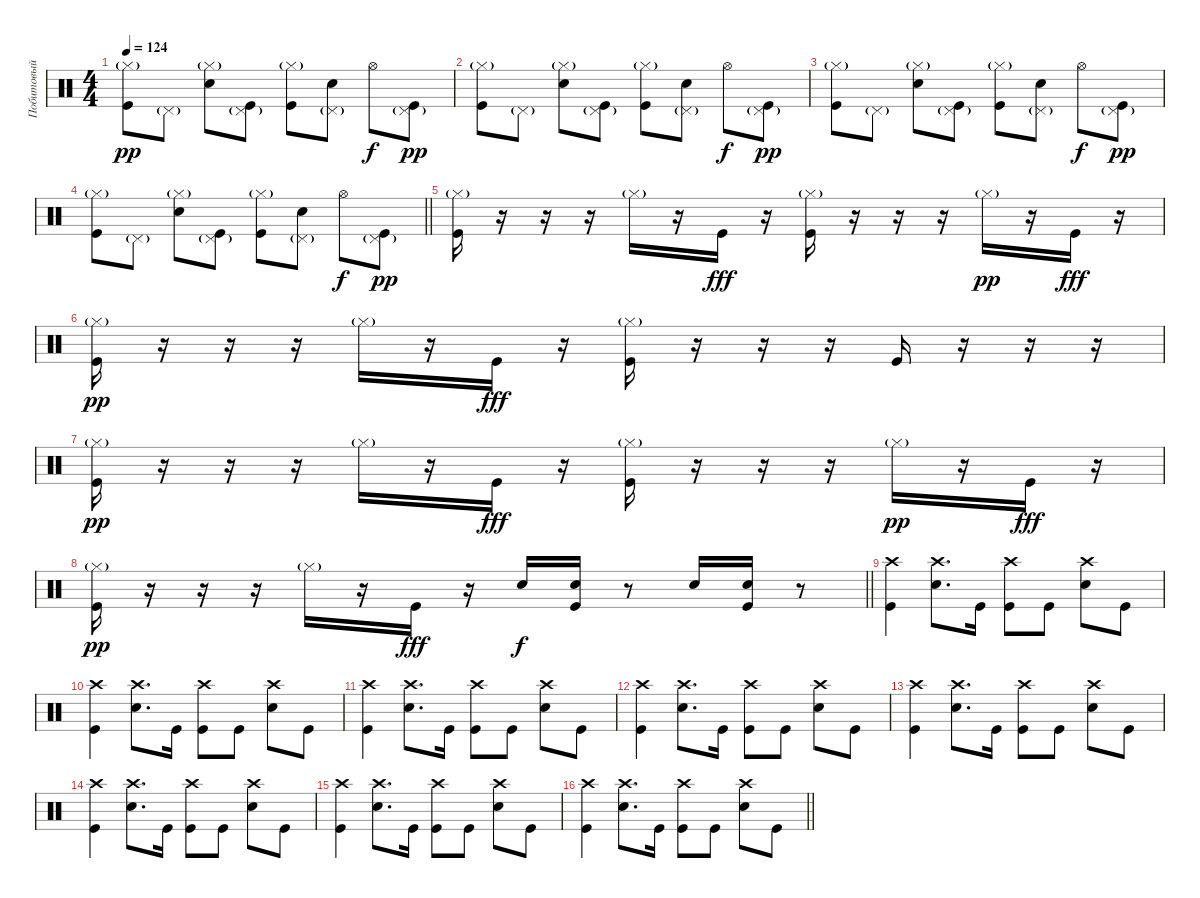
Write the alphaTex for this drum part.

\track ("Побитовый" "Побитовый") {instrument percussion}
\staff {score}
\articulation defaults
\ts (4 4)
\tempo 124
\clef neutral
\ks c
("Hi-Hat (closed)"{g} "Kick (hit)").8{dy pp} "Pedal Hi-Hat (hit)"{g}.8 ("Hi-Hat (closed)"{g} "Snare (hit) 2").8 ("Pedal Hi-Hat (hit)"{g} "Kick (hit)").8 ("Hi-Hat (closed)"{g} "Kick (hit)").8 ("Pedal Hi-Hat (hit)"{g} "Snare (hit) 2").8 "Hi-Hat (open)".8{dy f} ("Pedal Hi-Hat (hit)"{g} "Kick (hit)").8{dy pp} |
("Hi-Hat (closed)"{g} "Kick (hit)").8 "Pedal Hi-Hat (hit)"{g}.8 ("Hi-Hat (closed)"{g} "Snare (hit) 2").8 ("Pedal Hi-Hat (hit)"{g} "Kick (hit)").8 ("Hi-Hat (closed)"{g} "Kick (hit)").8 ("Pedal Hi-Hat (hit)"{g} "Snare (hit) 2").8 "Hi-Hat (open)".8{dy f} ("Pedal Hi-Hat (hit)"{g} "Kick (hit)").8{dy pp} |
("Hi-Hat (closed)"{g} "Kick (hit)").8 "Pedal Hi-Hat (hit)"{g}.8 ("Hi-Hat (closed)"{g} "Snare (hit) 2").8 ("Pedal Hi-Hat (hit)"{g} "Kick (hit)").8 ("Hi-Hat (closed)"{g} "Kick (hit)").8 ("Pedal Hi-Hat (hit)"{g} "Snare (hit) 2").8 "Hi-Hat (open)".8{dy f} ("Pedal Hi-Hat (hit)"{g} "Kick (hit)").8{dy pp} |
\barLineRight lightlight
("Hi-Hat (closed)"{g} "Kick (hit)").8 "Pedal Hi-Hat (hit)"{g}.8 ("Hi-Hat (closed)"{g} "Snare (hit) 2").8 ("Pedal Hi-Hat (hit)"{g} "Kick (hit)").8 ("Hi-Hat (closed)"{g} "Kick (hit)").8 ("Pedal Hi-Hat (hit)"{g} "Snare (hit) 2").8 "Hi-Hat (open)".8{dy f} ("Pedal Hi-Hat (hit)"{g} "Kick (hit)").8{dy pp} |
("Hi-Hat (closed)"{g} "Kick (hit)").16 r.16 r.16 r.16 "Hi-Hat (closed)"{g}.16 r.16 "Kick (hit)".16{dy fff} r.16 ("Hi-Hat (closed)"{g} "Kick (hit)").16 r.16 r.16 r.16 "Hi-Hat (closed)"{g}.16{dy pp} r.16 "Kick (hit)".16{dy fff} r.16 |
("Hi-Hat (closed)"{g} "Kick (hit)").16{dy pp} r.16 r.16 r.16 "Hi-Hat (closed)"{g}.16 r.16 "Kick (hit)".16{dy fff} r.16 ("Hi-Hat (closed)"{g} "Kick (hit)").16 r.16 r.16 r.16 "Kick (hit)".16 r.16 r.16 r.16 |
("Hi-Hat (closed)"{g} "Kick (hit)").16{dy pp} r.16 r.16 r.16 "Hi-Hat (closed)"{g}.16 r.16 "Kick (hit)".16{dy fff} r.16 ("Hi-Hat (closed)"{g} "Kick (hit)").16 r.16 r.16 r.16 "Hi-Hat (closed)"{g}.16{dy pp} r.16 "Kick (hit)".16{dy fff} r.16 |
\barLineRight lightlight
("Hi-Hat (closed)"{g} "Kick (hit)").16{dy pp} r.16 r.16 r.16 "Hi-Hat (closed)"{g}.16 r.16 "Kick (hit)".16{dy fff} r.16 "Snare (hit) 2".16{dy f} ("Snare (hit) 2" "Kick (hit)").16 r.8 "Snare (hit) 2".16 ("Snare (hit) 2" "Kick (hit)").16 r.8 |
("Crash high (hit)" "Kick (hit)").4 ("Crash high (hit)" "Snare (hit) 2").8{d} "Kick (hit)".16 ("Crash high (hit)" "Kick (hit)").8 "Kick (hit)".8 ("Crash high (hit)" "Snare (hit) 2").8 "Kick (hit)".8 |
("Crash high (hit)" "Kick (hit)").4 ("Crash high (hit)" "Snare (hit) 2").8{d} "Kick (hit)".16 ("Crash high (hit)" "Kick (hit)").8 "Kick (hit)".8 ("Crash high (hit)" "Snare (hit) 2").8 "Kick (hit)".8 |
("Crash high (hit)" "Kick (hit)").4 ("Crash high (hit)" "Snare (hit) 2").8{d} "Kick (hit)".16 ("Crash high (hit)" "Kick (hit)").8 "Kick (hit)".8 ("Crash high (hit)" "Snare (hit) 2").8 "Kick (hit)".8 |
("Crash high (hit)" "Kick (hit)").4 ("Crash high (hit)" "Snare (hit) 2").8{d} "Kick (hit)".16 ("Crash high (hit)" "Kick (hit)").8 "Kick (hit)".8 ("Crash high (hit)" "Snare (hit) 2").8 "Kick (hit)".8 |
("Crash high (hit)" "Kick (hit)").4 ("Crash high (hit)" "Snare (hit) 2").8{d} "Kick (hit)".16 ("Crash high (hit)" "Kick (hit)").8 "Kick (hit)".8 ("Crash high (hit)" "Snare (hit) 2").8 "Kick (hit)".8 |
("Crash high (hit)" "Kick (hit)").4 ("Crash high (hit)" "Snare (hit) 2").8{d} "Kick (hit)".16 ("Crash high (hit)" "Kick (hit)").8 "Kick (hit)".8 ("Crash high (hit)" "Snare (hit) 2").8 "Kick (hit)".8 |
("Crash high (hit)" "Kick (hit)").4 ("Crash high (hit)" "Snare (hit) 2").8{d} "Kick (hit)".16 ("Crash high (hit)" "Kick (hit)").8 "Kick (hit)".8 ("Crash high (hit)" "Snare (hit) 2").8 "Kick (hit)".8 |
\barLineRight lightlight
("Crash high (hit)" "Kick (hit)").4 ("Crash high (hit)" "Snare (hit) 2").8{d} "Kick (hit)".16 ("Crash high (hit)" "Kick (hit)").8 "Kick (hit)".8 ("Crash high (hit)" "Snare (hit) 2").8 "Kick (hit)".8
